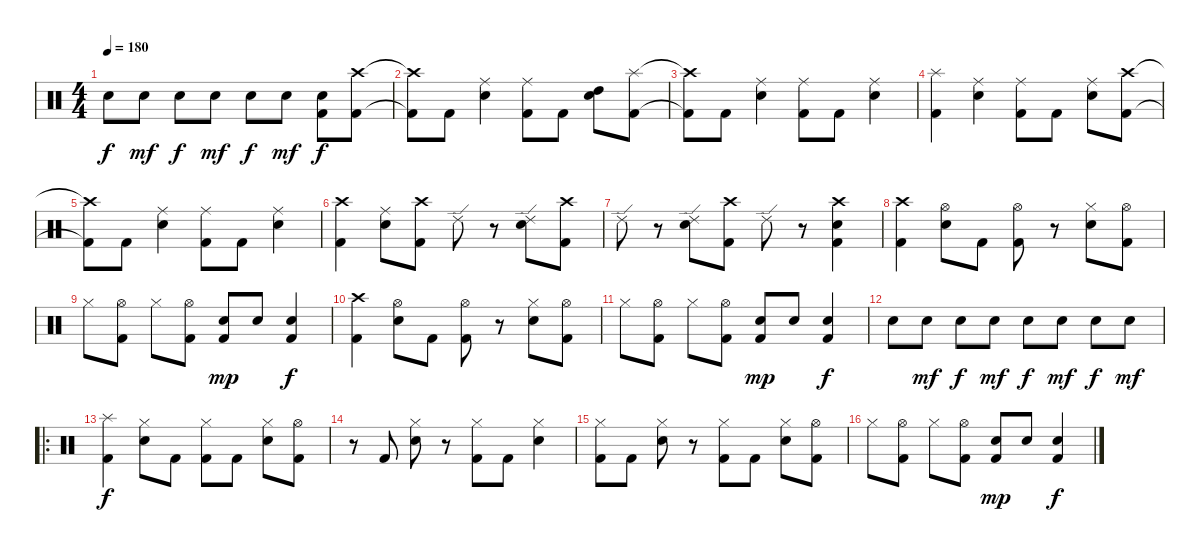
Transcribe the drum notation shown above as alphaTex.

\track "" {instrument percussion}
\staff {score}
\articulation defaults
\ts (4 4)
\tempo 180
\clef neutral
\ks c "Electric Snare (hit)".8{dy f} "Electric Snare (hit)".8{dy mf} "Electric Snare (hit)".8{dy f} "Electric Snare (hit)".8{dy mf} "Electric Snare (hit)".8{dy f} "Electric Snare (hit)".8{dy mf}
("Electric Snare (hit)" "Kick (hit) 2").8{dy f} ("Crash high (hit)" "Kick (hit) 2").8 |
("Crash high (hit)"{t} "Kick (hit) 2"{t}).8 "Kick (hit) 2".8 ("Ride (middle)" "Electric Snare (hit)").4 ("Ride (middle)" "Kick (hit) 2").8 "Kick (hit) 2".8 ("High Tom (hit)" "Electric Snare (hit)").8 ("Splash (hit)" "Kick (hit) 2").8 |
("Crash high (hit)"{t} "Kick (hit) 2"{t}).8 "Kick (hit) 2".8 ("Ride (middle)" "Electric Snare (hit)").4 ("Ride (middle)" "Kick (hit) 2").8 "Kick (hit) 2".8 ("Ride (middle)" "Electric Snare (hit)").4 |
("Splash (hit)" "Kick (hit) 2").4 ("Ride (middle)" "Electric Snare (hit)").4 ("Ride (middle)" "Kick (hit) 2").8 "Kick (hit) 2".8 ("Ride (middle)" "Electric Snare (hit)").8 ("Crash high (hit)" "Kick (hit) 2").8 |
("Crash high (hit)"{t} "Kick (hit) 2"{t}).8 "Kick (hit) 2".8 ("Ride (middle)" "Electric Snare (hit)").4 ("Ride (middle)" "Kick (hit) 2").8 "Kick (hit) 2".8 ("Ride (middle)" "Electric Snare (hit)").4 |
("Crash high (hit)" "Kick (hit) 2").4 ("Ride (middle)" "Electric Snare (hit)").8 ("Crash high (hit)" "Kick (hit) 2").8 "Ride (edge) 2".8 r.8 ("Ride (edge) 2" "Electric Snare (hit)").8 ("Crash high (hit)" "Kick (hit) 2").8 |
"Ride (edge) 2".8 r.8 ("Ride (edge) 2" "Electric Snare (hit)").8 ("Crash high (hit)" "Kick (hit) 2").8 "Ride (edge) 2".8 r.8 ("Crash high (hit)" "Electric Snare (hit)" "Kick (hit) 2").4 |
("Crash high (hit)" "Kick (hit) 2").4 ("Hi-Hat (open)" "Electric Snare (hit)").8 "Kick (hit) 2".8 ("Hi-Hat (open)" "Kick (hit) 2").8 r.8 ("Hi-Hat (closed)" "Electric Snare (hit)").8 ("Hi-Hat (open)" "Kick (hit) 2").8 |
"Hi-Hat (closed)".8 ("Hi-Hat (open)" "Kick (hit) 2").8 "Hi-Hat (closed)".8 ("Hi-Hat (open)" "Kick (hit) 2").8 ("Electric Snare (hit)" "Kick (hit) 2").8{dy mp} "Electric Snare (hit)".8 ("Electric Snare (hit)" "Kick (hit) 2").4{dy f} |
("Crash high (hit)" "Kick (hit) 2").4 ("Hi-Hat (open)" "Electric Snare (hit)").8 "Kick (hit) 2".8 ("Hi-Hat (open)" "Kick (hit) 2").8 r.8 ("Hi-Hat (closed)" "Electric Snare (hit)").8 ("Hi-Hat (open)" "Kick (hit) 2").8 |
"Hi-Hat (closed)".8 ("Hi-Hat (open)" "Kick (hit) 2").8 "Hi-Hat (closed)".8 ("Hi-Hat (open)" "Kick (hit) 2").8 ("Electric Snare (hit)" "Kick (hit) 2").8{dy mp} "Electric Snare (hit)".8 ("Electric Snare (hit)" "Kick (hit) 2").4{dy f} |
"Electric Snare (hit)".8 "Electric Snare (hit)".8{dy mf} "Electric Snare (hit)".8{dy f} "Electric Snare (hit)".8{dy mf} "Electric Snare (hit)".8{dy f} "Electric Snare (hit)".8{dy mf} "Electric Snare (hit)".8{dy f} "Electric Snare (hit)".8{dy mf} |
\ro
("Splash (hit)" "Kick (hit) 2").4{dy f} ("Hi-Hat (closed)" "Electric Snare (hit)").8 "Kick (hit) 2".8 ("Hi-Hat (closed)" "Kick (hit) 2").8 "Kick (hit) 2".8 ("Hi-Hat (closed)" "Electric Snare (hit)").8 ("Hi-Hat (open)" "Kick (hit) 2").8 |
r.8 "Kick (hit) 2".8 ("Hi-Hat (closed)" "Electric Snare (hit)").8 r.8 ("Hi-Hat (closed)" "Kick (hit) 2").8 "Kick (hit) 2".8 ("Hi-Hat (closed)" "Electric Snare (hit)").4 |
("Hi-Hat (closed)" "Kick (hit) 2").8 "Kick (hit) 2".8 ("Hi-Hat (closed)" "Electric Snare (hit)").8 r.8 ("Hi-Hat (closed)" "Kick (hit) 2").8 "Kick (hit) 2".8 ("Hi-Hat (closed)" "Electric Snare (hit)").8 ("Hi-Hat (open)" "Kick (hit) 2").8 |
"Hi-Hat (closed)".8 ("Hi-Hat (open)" "Kick (hit) 2").8 "Hi-Hat (closed)".8 ("Hi-Hat (open)" "Kick (hit) 2").8 ("Electric Snare (hit)" "Kick (hit) 2").8{dy mp} "Electric Snare (hit)".8 ("Electric Snare (hit)" "Kick (hit) 2").4{dy f}
